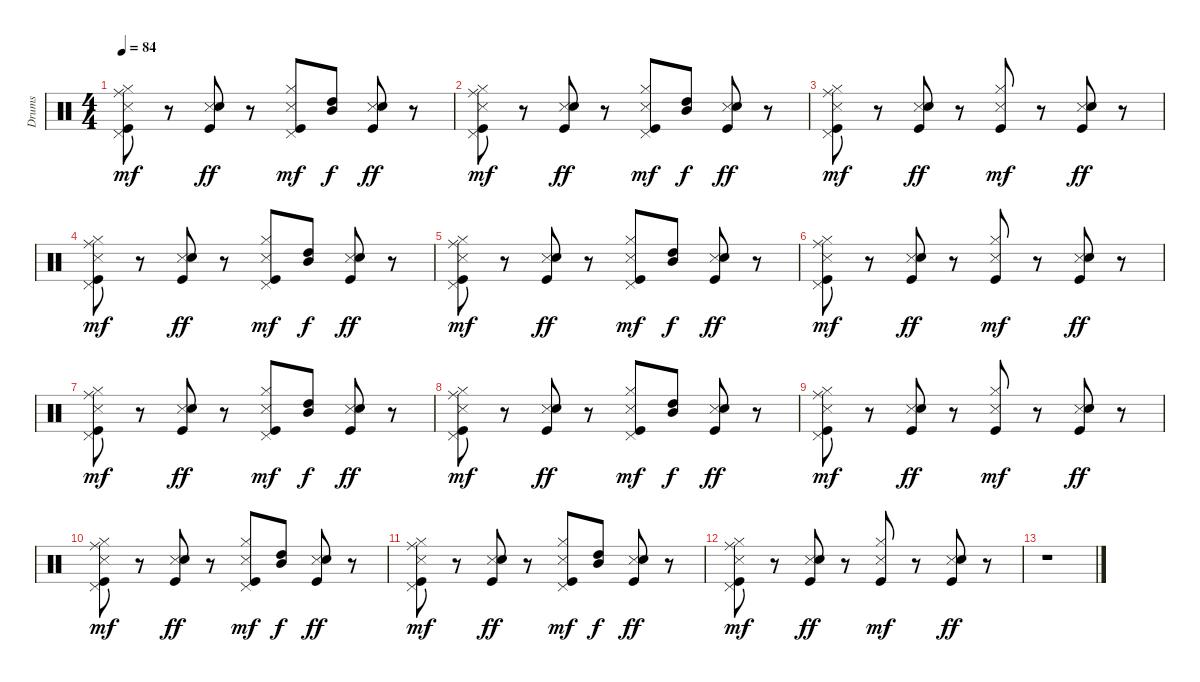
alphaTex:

\track ("Drums   " "Drums   ") {instrument percussion}
\staff {score}
\articulation defaults
\ts (4 4)
\tempo 84
\clef neutral
\ks c
("Ride (middle)" "Pedal Hi-Hat (hit)" "Kick (hit)" "Hi-Hat (closed)" "Snare (side stick) 3").8{dy mf} r.8 ("Kick (hit)" "Snare (side stick) 3" "Hand Clap (hit)").8{dy ff} r.8 ("Pedal Hi-Hat (hit)" "Kick (hit)" "Hi-Hat (closed)" "Snare (side stick) 3").8{dy mf} ("Mid Tom (hit)" "High Tom (hit)").8{dy f} ("Kick (hit)" "Snare (side stick) 3" "Hand Clap (hit)").8{dy ff} r.8 |
("Ride (middle)" "Pedal Hi-Hat (hit)" "Kick (hit)" "Hi-Hat (closed)" "Snare (side stick) 3").8{dy mf} r.8 ("Kick (hit)" "Snare (side stick) 3" "Hand Clap (hit)").8{dy ff} r.8 ("Pedal Hi-Hat (hit)" "Kick (hit)" "Hi-Hat (closed)" "Snare (side stick) 3").8{dy mf} ("Mid Tom (hit)" "High Tom (hit)").8{dy f} ("Kick (hit)" "Snare (side stick) 3" "Hand Clap (hit)").8{dy ff} r.8 |
("Ride (middle)" "Pedal Hi-Hat (hit)" "Kick (hit)" "Hi-Hat (closed)" "Snare (side stick) 3").8{dy mf} r.8 ("Kick (hit)" "Snare (side stick) 3" "Hand Clap (hit)").8{dy ff} r.8 ("Kick (hit)" "Hi-Hat (closed)" "Snare (side stick) 3").8{dy mf} r.8 ("Kick (hit)" "Snare (side stick) 3" "Hand Clap (hit)").8{dy ff} r.8 |
("Ride (middle)" "Pedal Hi-Hat (hit)" "Kick (hit)" "Hi-Hat (closed)" "Snare (side stick) 3").8{dy mf} r.8 ("Kick (hit)" "Snare (side stick) 3" "Hand Clap (hit)").8{dy ff} r.8 ("Pedal Hi-Hat (hit)" "Kick (hit)" "Hi-Hat (closed)" "Snare (side stick) 3").8{dy mf volume 15} ("Mid Tom (hit)" "High Tom (hit)").8{dy f volume 15} ("Kick (hit)" "Snare (side stick) 3" "Hand Clap (hit)").8{dy ff} r.8 |
("Ride (middle)" "Pedal Hi-Hat (hit)" "Kick (hit)" "Hi-Hat (closed)" "Snare (side stick) 3").8{dy mf volume 14} r.8 ("Kick (hit)" "Snare (side stick) 3" "Hand Clap (hit)").8{dy ff volume 14} r.8 ("Pedal Hi-Hat (hit)" "Kick (hit)" "Hi-Hat (closed)" "Snare (side stick) 3").8{dy mf volume 14} ("Mid Tom (hit)" "High Tom (hit)").8{dy f volume 13} ("Kick (hit)" "Snare (side stick) 3" "Hand Clap (hit)").8{dy ff} r.8 |
("Ride (middle)" "Pedal Hi-Hat (hit)" "Kick (hit)" "Hi-Hat (closed)" "Snare (side stick) 3").8{dy mf volume 13} r.8 ("Kick (hit)" "Snare (side stick) 3" "Hand Clap (hit)").8{dy ff volume 12} r.8 ("Kick (hit)" "Hi-Hat (closed)" "Snare (side stick) 3").8{dy mf volume 12} r.8 ("Kick (hit)" "Snare (side stick) 3" "Hand Clap (hit)").8{dy ff volume 11} r.8 |
("Ride (middle)" "Pedal Hi-Hat (hit)" "Kick (hit)" "Hi-Hat (closed)" "Snare (side stick) 3").8{dy mf volume 11} r.8 ("Kick (hit)" "Snare (side stick) 3" "Hand Clap (hit)").8{dy ff volume 10} r.8 ("Pedal Hi-Hat (hit)" "Kick (hit)" "Hi-Hat (closed)" "Snare (side stick) 3").8{dy mf volume 10} ("Mid Tom (hit)" "High Tom (hit)").8{dy f volume 10} ("Kick (hit)" "Snare (side stick) 3" "Hand Clap (hit)").8{dy ff volume 10} r.8 |
("Ride (middle)" "Pedal Hi-Hat (hit)" "Kick (hit)" "Hi-Hat (closed)" "Snare (side stick) 3").8{dy mf volume 9} r.8 ("Kick (hit)" "Snare (side stick) 3" "Hand Clap (hit)").8{dy ff volume 8} r.8 ("Pedal Hi-Hat (hit)" "Kick (hit)" "Hi-Hat (closed)" "Snare (side stick) 3").8{dy mf volume 8} ("Mid Tom (hit)" "High Tom (hit)").8{dy f volume 8} ("Kick (hit)" "Snare (side stick) 3" "Hand Clap (hit)").8{dy ff volume 8} r.8 |
("Ride (middle)" "Pedal Hi-Hat (hit)" "Kick (hit)" "Hi-Hat (closed)" "Snare (side stick) 3").8{dy mf volume 7} r.8 ("Kick (hit)" "Snare (side stick) 3" "Hand Clap (hit)").8{dy ff volume 7} r.8 ("Kick (hit)" "Hi-Hat (closed)" "Snare (side stick) 3").8{dy mf volume 6} r.8 ("Kick (hit)" "Snare (side stick) 3" "Hand Clap (hit)").8{dy ff volume 6} r.8 |
("Ride (middle)" "Pedal Hi-Hat (hit)" "Kick (hit)" "Hi-Hat (closed)" "Snare (side stick) 3").8{dy mf volume 6} r.8 ("Kick (hit)" "Snare (side stick) 3" "Hand Clap (hit)").8{dy ff volume 5} r.8 ("Pedal Hi-Hat (hit)" "Kick (hit)" "Hi-Hat (closed)" "Snare (side stick) 3").8{dy mf volume 4} ("Mid Tom (hit)" "High Tom (hit)").8{dy f} ("Kick (hit)" "Snare (side stick) 3" "Hand Clap (hit)").8{dy ff volume 4} r.8 |
("Ride (middle)" "Pedal Hi-Hat (hit)" "Kick (hit)" "Hi-Hat (closed)" "Snare (side stick) 3").8{dy mf volume 3} r.8 ("Kick (hit)" "Snare (side stick) 3" "Hand Clap (hit)").8{dy ff volume 3} r.8 ("Pedal Hi-Hat (hit)" "Kick (hit)" "Hi-Hat (closed)" "Snare (side stick) 3").8{dy mf volume 3} ("Mid Tom (hit)" "High Tom (hit)").8{dy f} ("Kick (hit)" "Snare (side stick) 3" "Hand Clap (hit)").8{dy ff volume 2} r.8 |
("Ride (middle)" "Pedal Hi-Hat (hit)" "Kick (hit)" "Hi-Hat (closed)" "Snare (side stick) 3").8{dy mf} r.8 ("Kick (hit)" "Snare (side stick) 3" "Hand Clap (hit)").8{dy ff} r.8 ("Kick (hit)" "Hi-Hat (closed)" "Snare (side stick) 3").8{dy mf volume 2} r.8 ("Kick (hit)" "Snare (side stick) 3" "Hand Clap (hit)").8{dy ff volume 1} r.8 |
r.1
